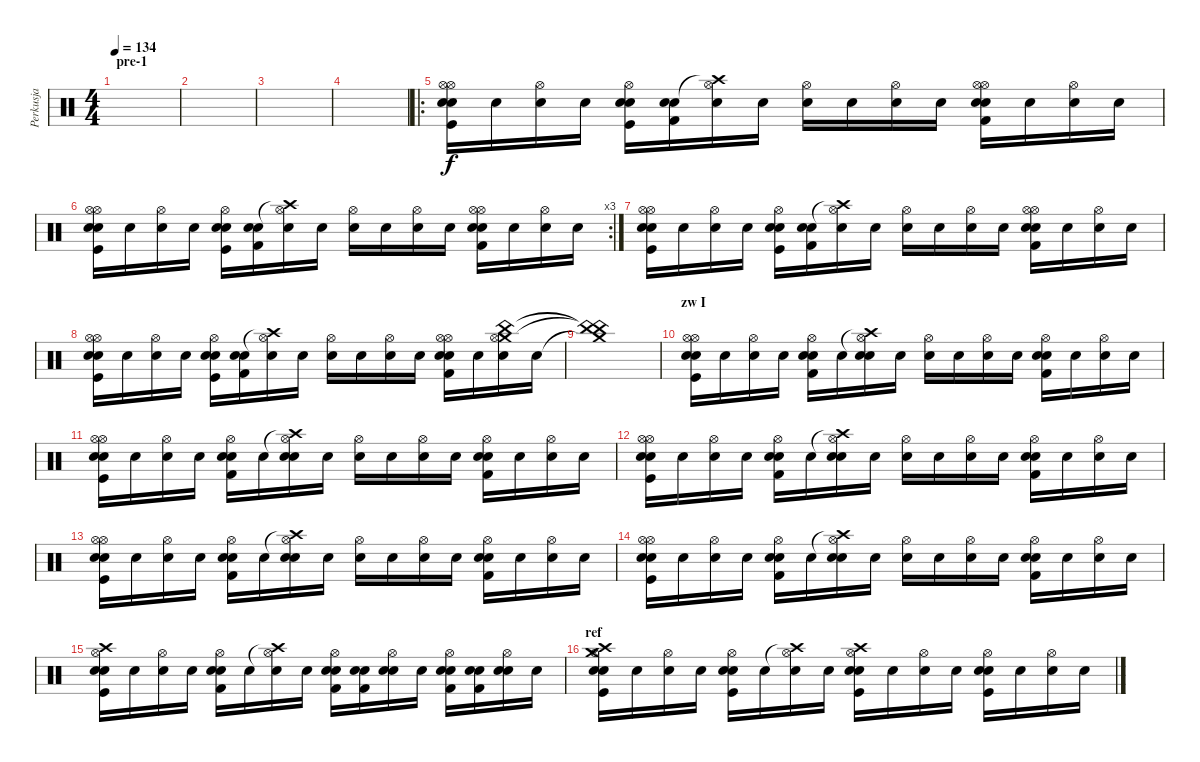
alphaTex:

\track ("Perkusja" "Perkusja") {instrument percussion}
\staff {score}
\articulation defaults
\ts (4 4)
\section ("" "pre-1")
\tempo 134
\clef neutral
\ks c
|
|
|
|
\ro
("Hi-Hat (open)" "Electric Snare (hit)" "Kick (hit)" "Hi-Hat (open)" "Snare (hit)").16 "Snare (hit)".16 ("Hi-Hat (open)" "Snare (hit)").16 "Snare (hit)".16 ("Electric Snare (hit)" "Kick (hit)" "Hi-Hat (open)" "Snare (hit)").16 ("Electric Snare (hit)" "Kick (hit) 2" "Snare (hit)").16 ("Crash high (hit)"{t} "Hi-Hat (open)" "Snare (hit)").16 "Snare (hit)".16 ("Hi-Hat (open)" "Snare (hit)").16 "Snare (hit)".16 ("Hi-Hat (open)" "Snare (hit)").16 "Snare (hit)".16 ("Hi-Hat (open)" "Electric Snare (hit)" "Kick (hit) 2" "Hi-Hat (open)" "Snare (hit)").16 "Snare (hit)".16 ("Hi-Hat (open)" "Snare (hit)").16 "Snare (hit)".16 |
\rc 3
("Hi-Hat (open)" "Electric Snare (hit)" "Kick (hit)" "Hi-Hat (open)" "Snare (hit)").16 "Snare (hit)".16 ("Hi-Hat (open)" "Snare (hit)").16 "Snare (hit)".16 ("Electric Snare (hit)" "Kick (hit)" "Hi-Hat (open)" "Snare (hit)").16 ("Electric Snare (hit)" "Kick (hit) 2" "Snare (hit)").16 ("Crash high (hit)"{t} "Hi-Hat (open)" "Snare (hit)").16 "Snare (hit)".16 ("Hi-Hat (open)" "Snare (hit)").16 "Snare (hit)".16 ("Hi-Hat (open)" "Snare (hit)").16 "Snare (hit)".16 ("Hi-Hat (open)" "Electric Snare (hit)" "Kick (hit) 2" "Hi-Hat (open)" "Snare (hit)").16 "Snare (hit)".16 ("Hi-Hat (open)" "Snare (hit)").16 "Snare (hit)".16 |
("Hi-Hat (open)" "Electric Snare (hit)" "Kick (hit)" "Hi-Hat (open)" "Snare (hit)").16 "Snare (hit)".16 ("Hi-Hat (open)" "Snare (hit)").16 "Snare (hit)".16 ("Electric Snare (hit)" "Kick (hit)" "Hi-Hat (open)" "Snare (hit)").16 ("Electric Snare (hit)" "Kick (hit) 2" "Snare (hit)").16 ("Crash high (hit)"{t} "Hi-Hat (open)" "Snare (hit)").16 "Snare (hit)".16 ("Hi-Hat (open)" "Snare (hit)").16 "Snare (hit)".16 ("Hi-Hat (open)" "Snare (hit)").16 "Snare (hit)".16 ("Hi-Hat (open)" "Electric Snare (hit)" "Kick (hit) 2" "Hi-Hat (open)" "Snare (hit)").16 "Snare (hit)".16 ("Hi-Hat (open)" "Snare (hit)").16 "Snare (hit)".16 |
("Hi-Hat (open)" "Electric Snare (hit)" "Kick (hit)" "Hi-Hat (open)" "Snare (hit)").16 "Snare (hit)".16 ("Hi-Hat (open)" "Snare (hit)").16 "Snare (hit)".16 ("Electric Snare (hit)" "Kick (hit)" "Hi-Hat (open)" "Snare (hit)").16 ("Electric Snare (hit)" "Kick (hit) 2" "Snare (hit)").16 ("Crash high (hit)"{t} "Hi-Hat (open)" "Snare (hit)").16 "Snare (hit)".16 ("Hi-Hat (open)" "Snare (hit)").16 "Snare (hit)".16 ("Hi-Hat (open)" "Snare (hit)").16 "Snare (hit)".16 ("Hi-Hat (open)" "Electric Snare (hit)" "Kick (hit) 2" "Hi-Hat (open)" "Snare (hit)").16 "Snare (hit)".16 ("Crash medium (hit)" "China (hit)" "Hi-Hat (open)" "Snare (hit)").16 "Snare (hit)".16 |
("Crash medium (hit)"{t} "China (hit)"{t} "China (hit)"{t}).1 |
\section ("" "zw I")
("Hi-Hat (open)" "Electric Snare (hit)" "Kick (hit)" "Hi-Hat (open)" "Snare (hit)").16 "Snare (hit)".16 ("Hi-Hat (open)" "Snare (hit)").16 "Snare (hit)".16 ("Electric Snare (hit)" "Kick (hit) 2" "Hi-Hat (open)" "Snare (hit)").16 "Snare (hit)".16 ("Crash high (hit)"{t} "Electric Snare (hit)" "Hi-Hat (open)" "Snare (hit)").16 "Snare (hit)".16 ("Hi-Hat (open)" "Snare (hit)").16 "Snare (hit)".16 ("Hi-Hat (open)" "Snare (hit)").16 "Snare (hit)".16 ("Electric Snare (hit)" "Kick (hit) 2" "Hi-Hat (open)" "Snare (hit)").16 "Snare (hit)".16 ("Hi-Hat (open)" "Snare (hit)").16 "Snare (hit)".16 |
("Hi-Hat (open)" "Electric Snare (hit)" "Kick (hit)" "Hi-Hat (open)" "Snare (hit)").16 "Snare (hit)".16 ("Hi-Hat (open)" "Snare (hit)").16 "Snare (hit)".16 ("Electric Snare (hit)" "Kick (hit) 2" "Hi-Hat (open)" "Snare (hit)").16 "Snare (hit)".16 ("Crash high (hit)"{t} "Electric Snare (hit)" "Hi-Hat (open)" "Snare (hit)").16 "Snare (hit)".16 ("Hi-Hat (open)" "Snare (hit)").16 "Snare (hit)".16 ("Hi-Hat (open)" "Snare (hit)").16 "Snare (hit)".16 ("Electric Snare (hit)" "Kick (hit) 2" "Hi-Hat (open)" "Snare (hit)").16 "Snare (hit)".16 ("Hi-Hat (open)" "Snare (hit)").16 "Snare (hit)".16 |
("Hi-Hat (open)" "Electric Snare (hit)" "Kick (hit)" "Hi-Hat (open)" "Snare (hit)").16 "Snare (hit)".16 ("Hi-Hat (open)" "Snare (hit)").16 "Snare (hit)".16 ("Electric Snare (hit)" "Kick (hit) 2" "Hi-Hat (open)" "Snare (hit)").16 "Snare (hit)".16 ("Crash high (hit)"{t} "Electric Snare (hit)" "Hi-Hat (open)" "Snare (hit)").16 "Snare (hit)".16 ("Hi-Hat (open)" "Snare (hit)").16 "Snare (hit)".16 ("Hi-Hat (open)" "Snare (hit)").16 "Snare (hit)".16 ("Electric Snare (hit)" "Kick (hit) 2" "Hi-Hat (open)" "Snare (hit)").16 "Snare (hit)".16 ("Hi-Hat (open)" "Snare (hit)").16 "Snare (hit)".16 |
("Hi-Hat (open)" "Electric Snare (hit)" "Kick (hit)" "Hi-Hat (open)" "Snare (hit)").16 "Snare (hit)".16 ("Hi-Hat (open)" "Snare (hit)").16 "Snare (hit)".16 ("Electric Snare (hit)" "Kick (hit) 2" "Hi-Hat (open)" "Snare (hit)").16 "Snare (hit)".16 ("Crash high (hit)"{t} "Electric Snare (hit)" "Hi-Hat (open)" "Snare (hit)").16 "Snare (hit)".16 ("Hi-Hat (open)" "Snare (hit)").16 "Snare (hit)".16 ("Hi-Hat (open)" "Snare (hit)").16 "Snare (hit)".16 ("Electric Snare (hit)" "Kick (hit) 2" "Hi-Hat (open)" "Snare (hit)").16 "Snare (hit)".16 ("Hi-Hat (open)" "Snare (hit)").16 "Snare (hit)".16 |
("Hi-Hat (open)" "Electric Snare (hit)" "Kick (hit)" "Hi-Hat (open)" "Snare (hit)").16 "Snare (hit)".16 ("Hi-Hat (open)" "Snare (hit)").16 "Snare (hit)".16 ("Electric Snare (hit)" "Kick (hit) 2" "Hi-Hat (open)" "Snare (hit)").16 "Snare (hit)".16 ("Crash high (hit)"{t} "Electric Snare (hit)" "Hi-Hat (open)" "Snare (hit)").16 "Snare (hit)".16 ("Hi-Hat (open)" "Snare (hit)").16 "Snare (hit)".16 ("Hi-Hat (open)" "Snare (hit)").16 "Snare (hit)".16 ("Electric Snare (hit)" "Kick (hit) 2" "Hi-Hat (open)" "Snare (hit)").16 "Snare (hit)".16 ("Hi-Hat (open)" "Snare (hit)").16 "Snare (hit)".16 |
("Crash high (hit)" "Electric Snare (hit)" "Kick (hit)" "Hi-Hat (open)" "Snare (hit)").16 "Snare (hit)".16 ("Hi-Hat (open)" "Snare (hit)").16 "Snare (hit)".16 ("Electric Snare (hit)" "Kick (hit) 2" "Hi-Hat (open)" "Snare (hit)").16 "Snare (hit)".16 ("Crash high (hit)"{t} "Hi-Hat (open)" "Snare (hit)").16 "Snare (hit)".16 ("Electric Snare (hit)" "Kick (hit) 2" "Hi-Hat (open)" "Snare (hit)").16 ("Electric Snare (hit)" "Kick (hit) 2" "Snare (hit)").16 ("Electric Snare (hit)" "Hi-Hat (open)" "Snare (hit)").16 "Snare (hit)".16 ("Electric Snare (hit)" "Kick (hit) 2" "Hi-Hat (open)" "Snare (hit)").16 ("Electric Snare (hit)" "Kick (hit) 2" "Snare (hit)").16 ("Electric Snare (hit)" "Hi-Hat (open)" "Snare (hit)").16 "Snare (hit)".16 |
\section ("" "ref")
("Crash high (hit)" "Crash medium (hit)" "Electric Snare (hit)" "Kick (hit)" "Hi-Hat (open)" "Snare (hit)").16 "Snare (hit)".16 ("Hi-Hat (open)" "Snare (hit)").16 "Snare (hit)".16 ("Electric Snare (hit)" "Kick (hit)" "Hi-Hat (open)" "Snare (hit)").16 "Snare (hit)".16 ("Crash high (hit)"{t} "Hi-Hat (open)" "Snare (hit)").16 "Snare (hit)".16 ("Crash high (hit)" "Electric Snare (hit)" "Kick (hit)" "Hi-Hat (open)" "Snare (hit)").16 "Snare (hit)".16 ("Hi-Hat (open)" "Snare (hit)").16 "Snare (hit)".16 ("Electric Snare (hit)" "Kick (hit)" "Hi-Hat (open)" "Snare (hit)").16 "Snare (hit)".16 ("Hi-Hat (open)" "Snare (hit)").16 "Snare (hit)".16
